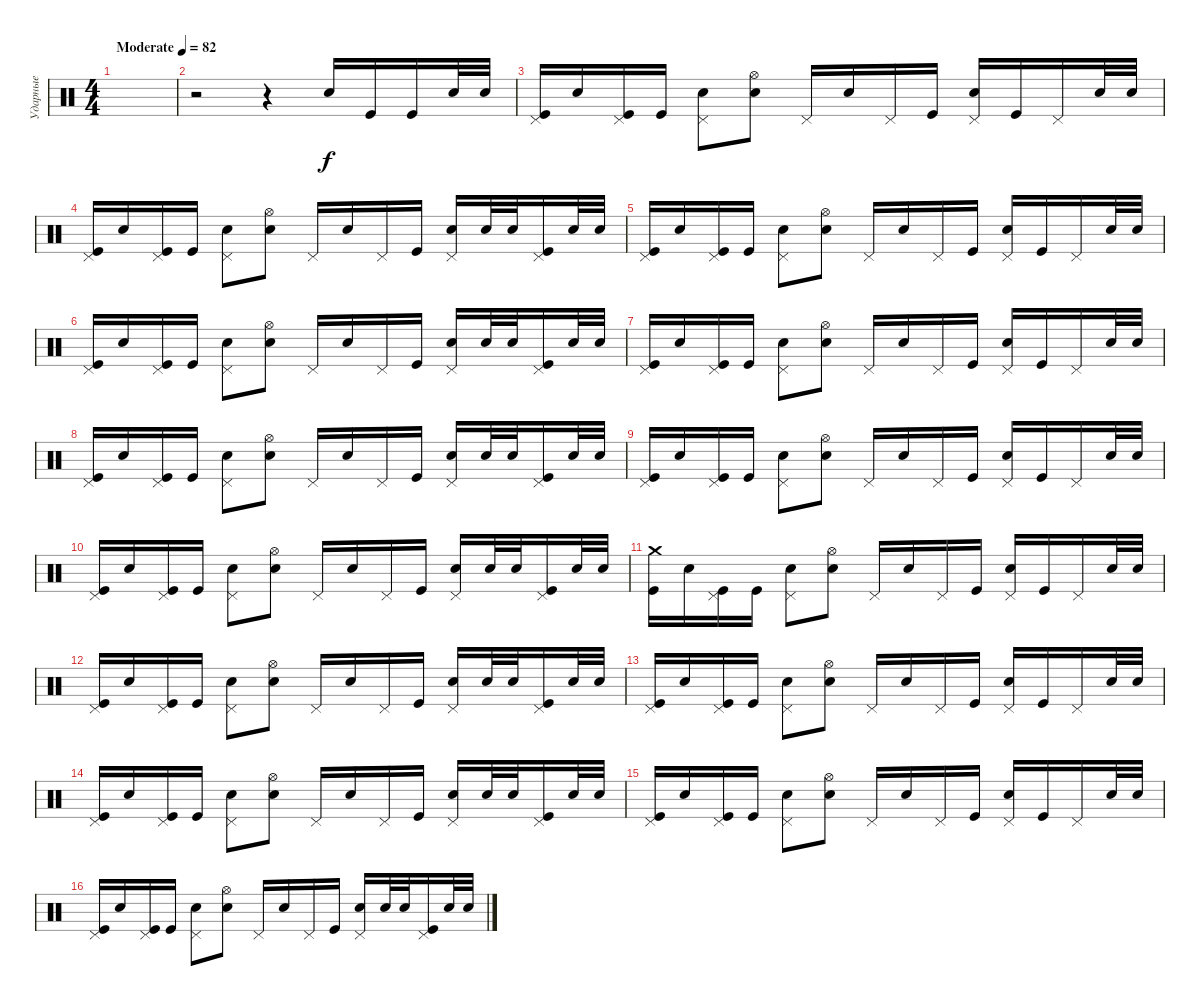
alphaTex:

\track ("Ударные" "Ударные") {instrument percussion}
\staff {score}
\articulation defaults
\ts (4 4)
\tempo (82 "Moderate")
\clef neutral
\ks c
|
r.2 r.4 "Electric Snare (hit)".16 "Kick (hit)".16 "Kick (hit)".16 "Electric Snare (hit)".32 "Electric Snare (hit)".32 |
("Pedal Hi-Hat (hit)" "Kick (hit)").16 "Electric Snare (hit)".16 ("Pedal Hi-Hat (hit)" "Kick (hit)").16 "Kick (hit)".16 ("Pedal Hi-Hat (hit)" "Electric Snare (hit)").8 ("Hi-Hat (open)" "Electric Snare (hit)").8 "Pedal Hi-Hat (hit)".16 "Electric Snare (hit)".16 "Pedal Hi-Hat (hit)".16 "Kick (hit)".16 ("Pedal Hi-Hat (hit)" "Electric Snare (hit)").16 "Kick (hit)".16 "Pedal Hi-Hat (hit)".16 "Electric Snare (hit)".32 "Electric Snare (hit)".32 |
("Pedal Hi-Hat (hit)" "Kick (hit)").16 "Electric Snare (hit)".16 ("Pedal Hi-Hat (hit)" "Kick (hit)").16 "Kick (hit)".16 ("Pedal Hi-Hat (hit)" "Electric Snare (hit)").8 ("Hi-Hat (open)" "Electric Snare (hit)").8 "Pedal Hi-Hat (hit)".16 "Electric Snare (hit)".16 "Pedal Hi-Hat (hit)".16 "Kick (hit)".16 ("Pedal Hi-Hat (hit)" "Electric Snare (hit)").16 "Electric Snare (hit)".32 "Electric Snare (hit)".32 ("Pedal Hi-Hat (hit)" "Kick (hit)").16 "Electric Snare (hit)".32 "Electric Snare (hit)".32 |
("Pedal Hi-Hat (hit)" "Kick (hit)").16 "Electric Snare (hit)".16 ("Pedal Hi-Hat (hit)" "Kick (hit)").16 "Kick (hit)".16 ("Pedal Hi-Hat (hit)" "Electric Snare (hit)").8 ("Hi-Hat (open)" "Electric Snare (hit)").8 "Pedal Hi-Hat (hit)".16 "Electric Snare (hit)".16 "Pedal Hi-Hat (hit)".16 "Kick (hit)".16 ("Pedal Hi-Hat (hit)" "Electric Snare (hit)").16 "Kick (hit)".16 "Pedal Hi-Hat (hit)".16 "Electric Snare (hit)".32 "Electric Snare (hit)".32 |
("Pedal Hi-Hat (hit)" "Kick (hit)").16 "Electric Snare (hit)".16 ("Pedal Hi-Hat (hit)" "Kick (hit)").16 "Kick (hit)".16 ("Pedal Hi-Hat (hit)" "Electric Snare (hit)").8 ("Hi-Hat (open)" "Electric Snare (hit)").8 "Pedal Hi-Hat (hit)".16 "Electric Snare (hit)".16 "Pedal Hi-Hat (hit)".16 "Kick (hit)".16 ("Pedal Hi-Hat (hit)" "Electric Snare (hit)").16 "Electric Snare (hit)".32 "Electric Snare (hit)".32 ("Pedal Hi-Hat (hit)" "Kick (hit)").16 "Electric Snare (hit)".32 "Electric Snare (hit)".32 |
("Pedal Hi-Hat (hit)" "Kick (hit)").16 "Electric Snare (hit)".16 ("Pedal Hi-Hat (hit)" "Kick (hit)").16 "Kick (hit)".16 ("Pedal Hi-Hat (hit)" "Electric Snare (hit)").8 ("Hi-Hat (open)" "Electric Snare (hit)").8 "Pedal Hi-Hat (hit)".16 "Electric Snare (hit)".16 "Pedal Hi-Hat (hit)".16 "Kick (hit)".16 ("Pedal Hi-Hat (hit)" "Electric Snare (hit)").16 "Kick (hit)".16 "Pedal Hi-Hat (hit)".16 "Electric Snare (hit)".32 "Electric Snare (hit)".32 |
("Pedal Hi-Hat (hit)" "Kick (hit)").16 "Electric Snare (hit)".16 ("Pedal Hi-Hat (hit)" "Kick (hit)").16 "Kick (hit)".16 ("Pedal Hi-Hat (hit)" "Electric Snare (hit)").8 ("Hi-Hat (open)" "Electric Snare (hit)").8 "Pedal Hi-Hat (hit)".16 "Electric Snare (hit)".16 "Pedal Hi-Hat (hit)".16 "Kick (hit)".16 ("Pedal Hi-Hat (hit)" "Electric Snare (hit)").16 "Electric Snare (hit)".32 "Electric Snare (hit)".32 ("Pedal Hi-Hat (hit)" "Kick (hit)").16 "Electric Snare (hit)".32 "Electric Snare (hit)".32 |
("Pedal Hi-Hat (hit)" "Kick (hit)").16 "Electric Snare (hit)".16 ("Pedal Hi-Hat (hit)" "Kick (hit)").16 "Kick (hit)".16 ("Pedal Hi-Hat (hit)" "Electric Snare (hit)").8 ("Hi-Hat (open)" "Electric Snare (hit)").8 "Pedal Hi-Hat (hit)".16 "Electric Snare (hit)".16 "Pedal Hi-Hat (hit)".16 "Kick (hit)".16 ("Pedal Hi-Hat (hit)" "Electric Snare (hit)").16 "Kick (hit)".16 "Pedal Hi-Hat (hit)".16 "Electric Snare (hit)".32 "Electric Snare (hit)".32 |
("Pedal Hi-Hat (hit)" "Kick (hit)").16 "Electric Snare (hit)".16 ("Pedal Hi-Hat (hit)" "Kick (hit)").16 "Kick (hit)".16 ("Pedal Hi-Hat (hit)" "Electric Snare (hit)").8 ("Hi-Hat (open)" "Electric Snare (hit)").8 "Pedal Hi-Hat (hit)".16 "Electric Snare (hit)".16 "Pedal Hi-Hat (hit)".16 "Kick (hit)".16 ("Pedal Hi-Hat (hit)" "Electric Snare (hit)").16 "Electric Snare (hit)".32 "Electric Snare (hit)".32 ("Pedal Hi-Hat (hit)" "Kick (hit)").16 "Electric Snare (hit)".32 "Electric Snare (hit)".32 |
("Crash medium (hit)" "Kick (hit)").16 "Electric Snare (hit)".16 ("Pedal Hi-Hat (hit)" "Kick (hit)").16 "Kick (hit)".16 ("Pedal Hi-Hat (hit)" "Electric Snare (hit)").8 ("Hi-Hat (open)" "Electric Snare (hit)").8 "Pedal Hi-Hat (hit)".16 "Electric Snare (hit)".16 "Pedal Hi-Hat (hit)".16 "Kick (hit)".16 ("Pedal Hi-Hat (hit)" "Electric Snare (hit)").16 "Kick (hit)".16 "Pedal Hi-Hat (hit)".16 "Electric Snare (hit)".32 "Electric Snare (hit)".32 |
("Pedal Hi-Hat (hit)" "Kick (hit)").16 "Electric Snare (hit)".16 ("Pedal Hi-Hat (hit)" "Kick (hit)").16 "Kick (hit)".16 ("Pedal Hi-Hat (hit)" "Electric Snare (hit)").8 ("Hi-Hat (open)" "Electric Snare (hit)").8 "Pedal Hi-Hat (hit)".16 "Electric Snare (hit)".16 "Pedal Hi-Hat (hit)".16 "Kick (hit)".16 ("Pedal Hi-Hat (hit)" "Electric Snare (hit)").16 "Electric Snare (hit)".32 "Electric Snare (hit)".32 ("Pedal Hi-Hat (hit)" "Kick (hit)").16 "Electric Snare (hit)".32 "Electric Snare (hit)".32 |
("Pedal Hi-Hat (hit)" "Kick (hit)").16 "Electric Snare (hit)".16 ("Pedal Hi-Hat (hit)" "Kick (hit)").16 "Kick (hit)".16 ("Pedal Hi-Hat (hit)" "Electric Snare (hit)").8 ("Hi-Hat (open)" "Electric Snare (hit)").8 "Pedal Hi-Hat (hit)".16 "Electric Snare (hit)".16 "Pedal Hi-Hat (hit)".16 "Kick (hit)".16 ("Pedal Hi-Hat (hit)" "Electric Snare (hit)").16 "Kick (hit)".16 "Pedal Hi-Hat (hit)".16 "Electric Snare (hit)".32 "Electric Snare (hit)".32 |
("Pedal Hi-Hat (hit)" "Kick (hit)").16 "Electric Snare (hit)".16 ("Pedal Hi-Hat (hit)" "Kick (hit)").16 "Kick (hit)".16 ("Pedal Hi-Hat (hit)" "Electric Snare (hit)").8 ("Hi-Hat (open)" "Electric Snare (hit)").8 "Pedal Hi-Hat (hit)".16 "Electric Snare (hit)".16 "Pedal Hi-Hat (hit)".16 "Kick (hit)".16 ("Pedal Hi-Hat (hit)" "Electric Snare (hit)").16 "Electric Snare (hit)".32 "Electric Snare (hit)".32 ("Pedal Hi-Hat (hit)" "Kick (hit)").16 "Electric Snare (hit)".32 "Electric Snare (hit)".32 |
("Pedal Hi-Hat (hit)" "Kick (hit)").16 "Electric Snare (hit)".16 ("Pedal Hi-Hat (hit)" "Kick (hit)").16 "Kick (hit)".16 ("Pedal Hi-Hat (hit)" "Electric Snare (hit)").8 ("Hi-Hat (open)" "Electric Snare (hit)").8 "Pedal Hi-Hat (hit)".16 "Electric Snare (hit)".16 "Pedal Hi-Hat (hit)".16 "Kick (hit)".16 ("Pedal Hi-Hat (hit)" "Electric Snare (hit)").16 "Kick (hit)".16 "Pedal Hi-Hat (hit)".16 "Electric Snare (hit)".32 "Electric Snare (hit)".32 |
("Pedal Hi-Hat (hit)" "Kick (hit)").16 "Electric Snare (hit)".16 ("Pedal Hi-Hat (hit)" "Kick (hit)").16 "Kick (hit)".16 ("Pedal Hi-Hat (hit)" "Electric Snare (hit)").8 ("Hi-Hat (open)" "Electric Snare (hit)").8 "Pedal Hi-Hat (hit)".16 "Electric Snare (hit)".16 "Pedal Hi-Hat (hit)".16 "Kick (hit)".16 ("Pedal Hi-Hat (hit)" "Electric Snare (hit)").16 "Electric Snare (hit)".32 "Electric Snare (hit)".32 ("Pedal Hi-Hat (hit)" "Kick (hit)").16 "Electric Snare (hit)".32 "Electric Snare (hit)".32
